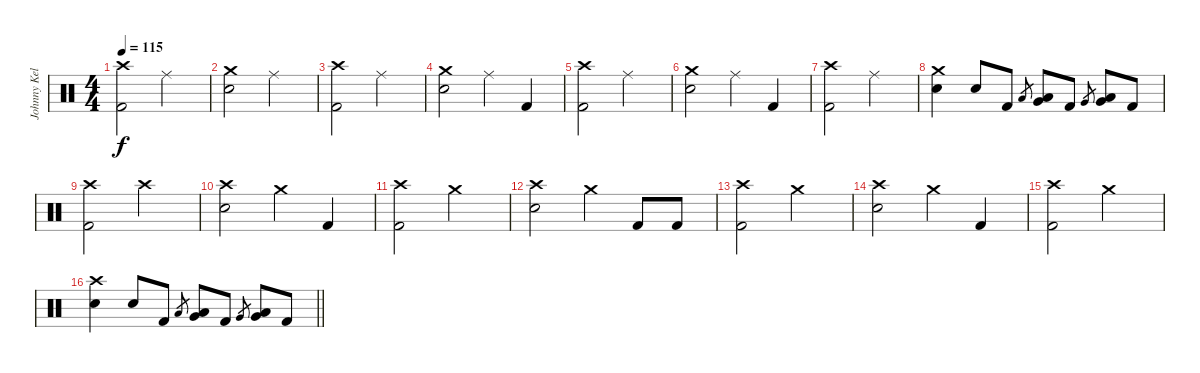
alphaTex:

\track ("Johnny Kelly" "Johnny Kel") {instrument percussion}
\staff {score}
\articulation defaults
\ts (4 4)
\section ("" "")
\tempo 115
\clef neutral
\ks c
("Crash high (hit)" "Kick (hit) 2").2{dy f} "Ride (middle)".2 |
("Crash medium (hit)" "Electric Snare (hit)").2 "Ride (middle)".2 |
("Crash high (hit)" "Kick (hit) 2").2 "Ride (middle)".2 |
("Crash medium (hit)" "Electric Snare (hit)").2 "Ride (middle)".4 "Kick (hit) 2".4 |
("Crash high (hit)" "Kick (hit) 2").2 "Ride (middle)".2 |
("Crash medium (hit)" "Electric Snare (hit)").2 "Ride (middle)".4 "Kick (hit) 2".4 |
("Crash high (hit)" "Kick (hit) 2").2 "Ride (middle)".2 |
("Crash medium (hit)" "Electric Snare (hit)").4 "Electric Snare (hit)".8 "Kick (hit) 2".8 "Low Tom (hit)".8{gr} ("Low Tom (hit)" "Very Low Tom (hit)").8 "Kick (hit) 2".8 "Very Low Tom (hit)".8{gr} ("Very Low Tom (hit)" "Low Floor Tom (hit)").8 "Kick (hit) 2".8 |
("Crash high (hit)" "Kick (hit) 2").2 "Crash high (hit)".2 |
("Crash high (hit)" "Electric Snare (hit)").2 "Crash medium (hit)".4 "Kick (hit) 2".4 |
("Crash high (hit)" "Kick (hit) 2").2 "Crash medium (hit)".2 |
("Crash high (hit)" "Electric Snare (hit)").2 "Crash medium (hit)".4 "Kick (hit) 2".8 "Kick (hit) 2".8 |
("Crash high (hit)" "Kick (hit) 2").2 "Crash medium (hit)".2 |
("Crash high (hit)" "Electric Snare (hit)").2 "Crash medium (hit)".4 "Kick (hit) 2".4 |
("Crash high (hit)" "Kick (hit) 2").2 "Crash medium (hit)".2 |
\barLineRight lightlight
("Crash high (hit)" "Electric Snare (hit)").4 "Electric Snare (hit)".8 "Kick (hit) 2".8 "Low Tom (hit)".8{gr} ("Low Tom (hit)" "Very Low Tom (hit)").8 "Kick (hit) 2".8 "Very Low Tom (hit)".8{gr} ("Very Low Tom (hit)" "Low Floor Tom (hit)").8 "Kick (hit) 2".8
